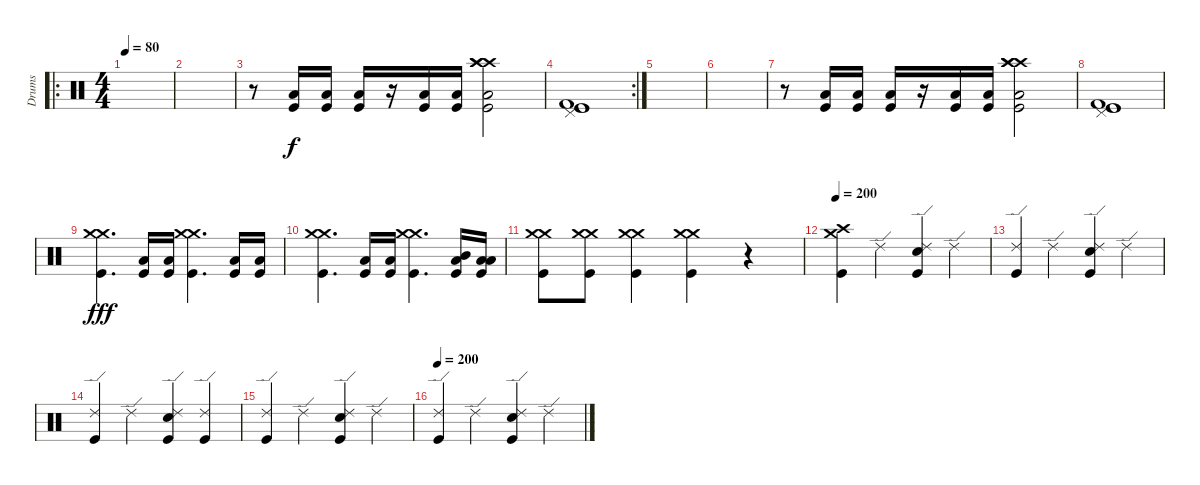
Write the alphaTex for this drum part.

\track ("Drums" "Drums") {instrument percussion}
\staff {score}
\articulation defaults
\ro
\ts (4 4)
\tempo 80
\clef neutral
\ks c
|
|
r.8 ("Low Floor Tom (hit)" "Kick (hit)").16 ("Low Floor Tom (hit)" "Kick (hit)").16 ("Low Floor Tom (hit)" "Kick (hit)").16 r.16 ("Low Floor Tom (hit)" "Kick (hit)").16 ("Low Floor Tom (hit)" "Kick (hit)").16 ("Crash high (hit)" "Crash high (hit)" "Crash high (hit)" "Low Floor Tom (hit)" "Kick (hit)").2 |
\rc 2
("Pedal Hi-Hat (hit)" "Kick (hit) 2" "Kick (hit)" "Kick (hit)").1 |
|
|
r.8 ("Low Floor Tom (hit)" "Kick (hit)").16 ("Low Floor Tom (hit)" "Kick (hit)").16 ("Low Floor Tom (hit)" "Kick (hit)").16 r.16 ("Low Floor Tom (hit)" "Kick (hit)").16 ("Low Floor Tom (hit)" "Kick (hit)").16 ("Crash high (hit)" "Crash high (hit)" "Crash high (hit)" "Low Floor Tom (hit)" "Kick (hit)").2 |
("Pedal Hi-Hat (hit)" "Kick (hit) 2" "Kick (hit)" "Kick (hit)").1 |
("Crash medium (hit)" "Crash medium (hit)" "Kick (hit)").4{d dy fff} ("Low Floor Tom (hit)" "Kick (hit)").16 ("Low Floor Tom (hit)" "Kick (hit)").16 ("Crash medium (hit)" "Crash medium (hit)" "Kick (hit)").4{d} ("Low Floor Tom (hit)" "Kick (hit)").16 ("Low Floor Tom (hit)" "Kick (hit)").16 |
("Crash medium (hit)" "Crash medium (hit)" "Kick (hit)").4{d} ("Low Floor Tom (hit)" "Kick (hit)").16 ("Low Floor Tom (hit)" "Kick (hit)").16 ("Crash medium (hit)" "Crash medium (hit)" "Kick (hit)").4{d} ("Low Floor Tom (hit)" "Mid Tom (hit)" "Kick (hit)").16 ("Low Floor Tom (hit)" "Low Tom (hit)" "Kick (hit)").16 |
("Crash medium (hit)" "Crash medium (hit)" "Kick (hit)").8 ("Crash medium (hit)" "Crash medium (hit)" "Kick (hit)").8 ("Crash medium (hit)" "Crash medium (hit)" "Kick (hit)").4 ("Crash medium (hit)" "Crash medium (hit)" "Kick (hit)").4 r.4 |
\tempo 200
("Crash medium (hit)" "Crash high (hit)" "Kick (hit)").4 "Ride (edge) 2".4 ("Ride (edge) 2" "Snare (hit) 2" "Kick (hit)").4 "Ride (edge) 2".4 |
("Ride (edge) 2" "Kick (hit)").4 "Ride (edge) 2".4 ("Ride (edge) 2" "Snare (hit) 2" "Kick (hit)").4 "Ride (edge) 2".4 |
("Ride (edge) 2" "Kick (hit)").4 "Ride (edge) 2".4 ("Ride (edge) 2" "Snare (hit) 2" "Kick (hit)").4 ("Ride (edge) 2" "Kick (hit)").4 |
("Ride (edge) 2" "Kick (hit)").4 "Ride (edge) 2".4 ("Ride (edge) 2" "Snare (hit) 2" "Kick (hit)").4 "Ride (edge) 2".4 |
\tempo 200
("Ride (edge) 2" "Kick (hit)").4 "Ride (edge) 2".4 ("Ride (edge) 2" "Snare (hit) 2" "Kick (hit)").4 "Ride (edge) 2".4
